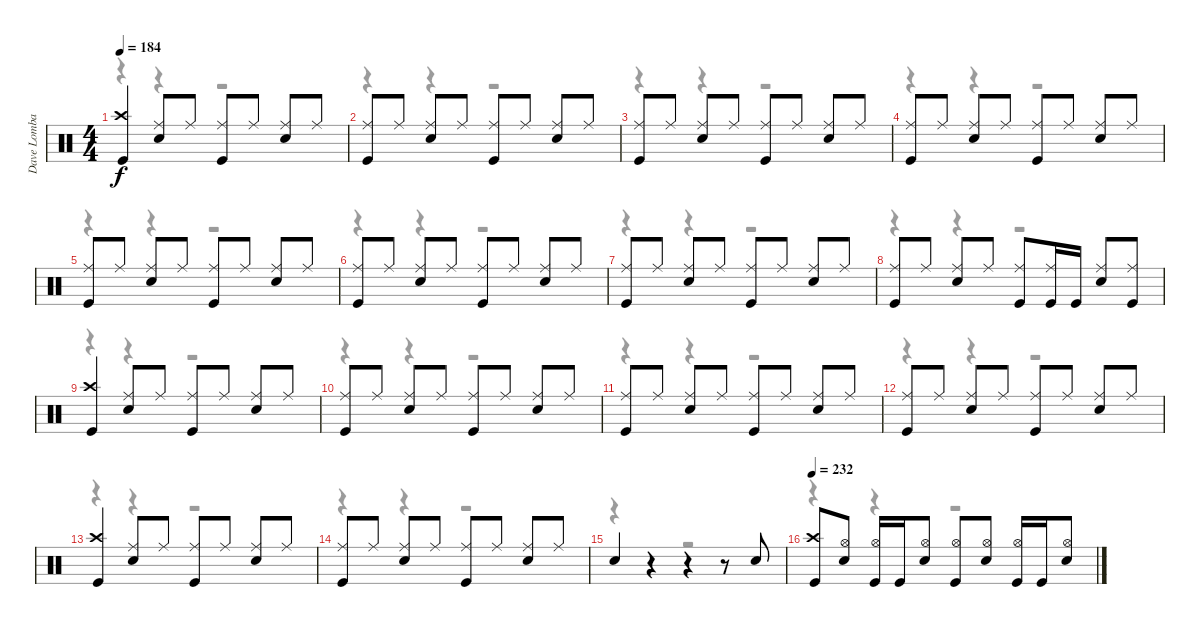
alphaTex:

\track ("Dave Lombardo" "Dave Lomba") {instrument percussion}
\staff {score}
\articulation defaults
\voice
\ts (4 4)
\tempo 184
\clef neutral
\ks c
("Crash high (hit)" "Kick (hit)").4{dy f} ("Ride (middle)" "Snare (hit) 2").8 "Ride (middle)".8 ("Ride (middle)" "Kick (hit)").8 "Ride (middle)".8 ("Ride (middle)" "Snare (hit) 2").8 "Ride (middle)".8 |
("Ride (middle)" "Kick (hit)").8 "Ride (middle)".8 ("Ride (middle)" "Snare (hit) 2").8 "Ride (middle)".8 ("Ride (middle)" "Kick (hit)").8 "Ride (middle)".8 ("Ride (middle)" "Snare (hit) 2").8 "Ride (middle)".8 |
("Ride (middle)" "Kick (hit)").8 "Ride (middle)".8 ("Ride (middle)" "Snare (hit) 2").8 "Ride (middle)".8 ("Ride (middle)" "Kick (hit)").8 "Ride (middle)".8 ("Ride (middle)" "Snare (hit) 2").8 "Ride (middle)".8 |
("Ride (middle)" "Kick (hit)").8 "Ride (middle)".8 ("Ride (middle)" "Snare (hit) 2").8 "Ride (middle)".8 ("Ride (middle)" "Kick (hit)").8 "Ride (middle)".8 ("Ride (middle)" "Snare (hit) 2").8 "Ride (middle)".8 |
("Ride (middle)" "Kick (hit)").8 "Ride (middle)".8 ("Ride (middle)" "Snare (hit) 2").8 "Ride (middle)".8 ("Ride (middle)" "Kick (hit)").8 "Ride (middle)".8 ("Ride (middle)" "Snare (hit) 2").8 "Ride (middle)".8 |
("Ride (middle)" "Kick (hit)").8 "Ride (middle)".8 ("Ride (middle)" "Snare (hit) 2").8 "Ride (middle)".8 ("Ride (middle)" "Kick (hit)").8 "Ride (middle)".8 ("Ride (middle)" "Snare (hit) 2").8 "Ride (middle)".8 |
("Ride (middle)" "Kick (hit)").8 "Ride (middle)".8 ("Ride (middle)" "Snare (hit) 2").8 "Ride (middle)".8 ("Ride (middle)" "Kick (hit)").8 "Ride (middle)".8 ("Ride (middle)" "Snare (hit) 2").8 "Ride (middle)".8 |
("Ride (middle)" "Kick (hit)").8 "Ride (middle)".8 ("Ride (middle)" "Snare (hit) 2").8 "Ride (middle)".8 ("Ride (middle)" "Kick (hit)").8 ("Ride (middle)" "Kick (hit)").16 "Kick (hit)".16 ("Ride (middle)" "Snare (hit) 2").8 ("Ride (middle)" "Kick (hit)").8 |
("Crash high (hit)" "Kick (hit)").4 ("Ride (middle)" "Snare (hit) 2").8 "Ride (middle)".8 ("Ride (middle)" "Kick (hit)").8 "Ride (middle)".8 ("Ride (middle)" "Snare (hit) 2").8 "Ride (middle)".8 |
("Ride (middle)" "Kick (hit)").8 "Ride (middle)".8 ("Ride (middle)" "Snare (hit) 2").8 "Ride (middle)".8 ("Ride (middle)" "Kick (hit)").8 "Ride (middle)".8 ("Ride (middle)" "Snare (hit) 2").8 "Ride (middle)".8 |
("Ride (middle)" "Kick (hit)").8 "Ride (middle)".8 ("Ride (middle)" "Snare (hit) 2").8 "Ride (middle)".8 ("Ride (middle)" "Kick (hit)").8 "Ride (middle)".8 ("Ride (middle)" "Snare (hit) 2").8 "Ride (middle)".8 |
("Ride (middle)" "Kick (hit)").8 "Ride (middle)".8 ("Ride (middle)" "Snare (hit) 2").8 "Ride (middle)".8 ("Ride (middle)" "Kick (hit)").8 "Ride (middle)".8 ("Ride (middle)" "Snare (hit) 2").8 "Ride (middle)".8 |
("Crash high (hit)" "Kick (hit)").4 ("Ride (middle)" "Snare (hit) 2").8 "Ride (middle)".8 ("Ride (middle)" "Kick (hit)").8 "Ride (middle)".8 ("Ride (middle)" "Snare (hit) 2").8 "Ride (middle)".8 |
("Ride (middle)" "Kick (hit)").8 "Ride (middle)".8 ("Ride (middle)" "Snare (hit) 2").8 "Ride (middle)".8 ("Ride (middle)" "Kick (hit)").8 "Ride (middle)".8 ("Ride (middle)" "Snare (hit) 2").8 "Ride (middle)".8 |
"Snare (hit) 2".4 r.4 r.4 r.8 "Snare (hit) 2".8 |
\tempo 232
("Crash high (hit)" "Kick (hit)").8 ("Hi-Hat (open)" "Snare (hit) 2").8 ("Hi-Hat (open)" "Kick (hit)").16 "Kick (hit)".16 ("Hi-Hat (open)" "Snare (hit) 2").8 ("Hi-Hat (open)" "Kick (hit)").8 ("Hi-Hat (open)" "Snare (hit) 2").8 ("Hi-Hat (open)" "Kick (hit)").16 "Kick (hit)".16 ("Hi-Hat (open)" "Snare (hit) 2").8
\voice
\clef neutral
\ottava regular
\simile none
\ks c
r.4{dy f} r.4 r.2 |
r.4 r.4 r.2 |
r.4 r.4 r.2 |
r.4 r.4 r.2 |
r.4 r.4 r.2 |
r.4 r.4 r.2 |
r.4 r.4 r.2 |
r.4 r.4 r.2 |
r.4 r.4 r.2 |
r.4 r.4 r.2 |
r.4 r.4 r.2 |
r.4 r.4 r.2 |
r.4 r.4 r.2 |
r.4 r.4 r.2 |
r.4 r.4 r.2 |
r.4 r.4 r.2
